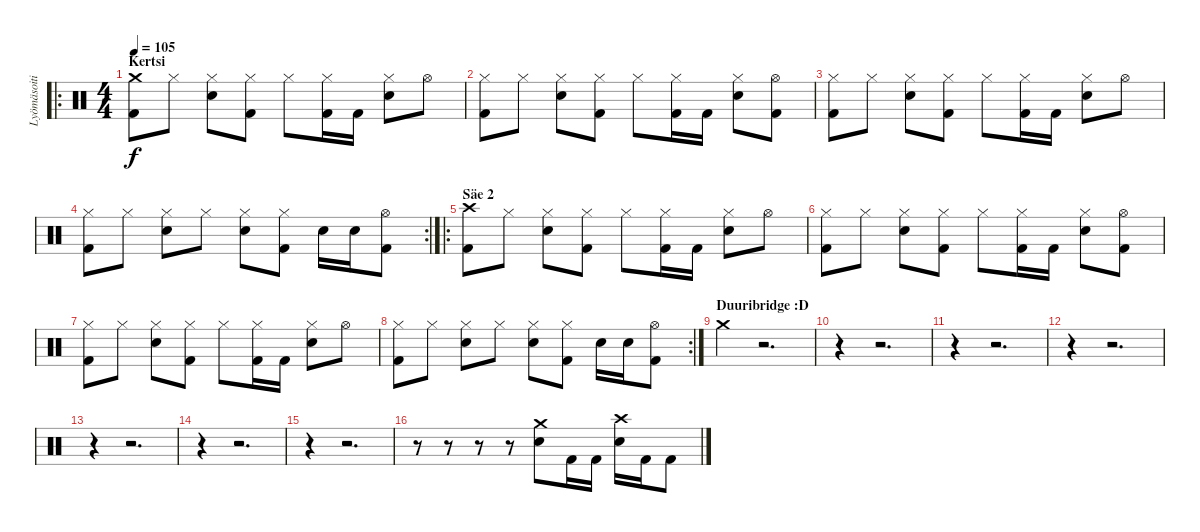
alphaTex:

\track ("Lyömäsoitin" "Lyömäsoiti") {instrument percussion}
\staff {score}
\articulation defaults
\ro
\ts (4 4)
\section ("" "Kertsi")
\tempo 105
\clef neutral
\ks c
("Crash medium (hit)" "Kick (hit) 2").8{dy f} "Hi-Hat (closed)".8 ("Hi-Hat (closed)" "Electric Snare (hit)").8 ("Hi-Hat (closed)" "Kick (hit) 2").8 "Hi-Hat (closed)".8 ("Hi-Hat (closed)" "Kick (hit) 2").16 "Kick (hit) 2".16 ("Hi-Hat (closed)" "Electric Snare (hit)").8 "Hi-Hat (open)".8 |
("Hi-Hat (closed)" "Kick (hit) 2").8 "Hi-Hat (closed)".8 ("Hi-Hat (closed)" "Electric Snare (hit)").8 ("Hi-Hat (closed)" "Kick (hit) 2").8 "Hi-Hat (closed)".8 ("Hi-Hat (closed)" "Kick (hit) 2").16 "Kick (hit) 2".16 ("Hi-Hat (closed)" "Electric Snare (hit)").8 ("Hi-Hat (open)" "Kick (hit) 2").8 |
("Hi-Hat (closed)" "Kick (hit) 2").8 "Hi-Hat (closed)".8 ("Hi-Hat (closed)" "Electric Snare (hit)").8 ("Hi-Hat (closed)" "Kick (hit) 2").8 "Hi-Hat (closed)".8 ("Hi-Hat (closed)" "Kick (hit) 2").16 "Kick (hit) 2".16 ("Hi-Hat (closed)" "Electric Snare (hit)").8 "Hi-Hat (open)".8 |
\rc 2
("Hi-Hat (closed)" "Kick (hit) 2").8 "Hi-Hat (closed)".8 ("Hi-Hat (closed)" "Electric Snare (hit)").8 "Hi-Hat (closed)".8 ("Hi-Hat (closed)" "Snare (hit) 2").8 ("Hi-Hat (closed)" "Kick (hit) 2").8 "Electric Snare (hit)".16 "Snare (hit) 2".16 ("Hi-Hat (open)" "Kick (hit) 2").8 |
\ro
\section ("" "Säe 2")
("Crash high (hit)" "Kick (hit) 2").8 "Hi-Hat (closed)".8 ("Hi-Hat (closed)" "Electric Snare (hit)").8 ("Hi-Hat (closed)" "Kick (hit) 2").8 "Hi-Hat (closed)".8 ("Hi-Hat (closed)" "Kick (hit) 2").16 "Kick (hit) 2".16 ("Hi-Hat (closed)" "Electric Snare (hit)").8 "Hi-Hat (open)".8 |
("Hi-Hat (closed)" "Kick (hit) 2").8 "Hi-Hat (closed)".8 ("Hi-Hat (closed)" "Electric Snare (hit)").8 ("Hi-Hat (closed)" "Kick (hit) 2").8 "Hi-Hat (closed)".8 ("Hi-Hat (closed)" "Kick (hit) 2").16 "Kick (hit) 2".16 ("Hi-Hat (closed)" "Electric Snare (hit)").8 ("Hi-Hat (open)" "Kick (hit) 2").8 |
("Hi-Hat (closed)" "Kick (hit) 2").8 "Hi-Hat (closed)".8 ("Hi-Hat (closed)" "Electric Snare (hit)").8 ("Hi-Hat (closed)" "Kick (hit) 2").8 "Hi-Hat (closed)".8 ("Hi-Hat (closed)" "Kick (hit) 2").16 "Kick (hit) 2".16 ("Hi-Hat (closed)" "Electric Snare (hit)").8 "Hi-Hat (open)".8 |
\rc 2
("Hi-Hat (closed)" "Kick (hit) 2").8 "Hi-Hat (closed)".8 ("Hi-Hat (closed)" "Electric Snare (hit)").8 "Hi-Hat (closed)".8 ("Hi-Hat (closed)" "Snare (hit) 2").8 ("Hi-Hat (closed)" "Kick (hit) 2").8 "Electric Snare (hit)".16 "Snare (hit) 2".16 ("Hi-Hat (open)" "Kick (hit) 2").8 |
\section ("" "Duuribridge :D")
"Crash medium (hit)".4 r.2{d} |
r.4 r.2{d} |
r.4 r.2{d} |
r.4 r.2{d} |
r.4 r.2{d} |
r.4 r.2{d} |
r.4 r.2{d} |
r.8 r.8 r.8 r.8 ("Crash medium (hit)" "Electric Snare (hit)").8 "Kick (hit) 2".16 "Kick (hit) 2".16 ("Crash high (hit)" "Electric Snare (hit)").16 "Kick (hit) 2".16 "Kick (hit) 2".8
